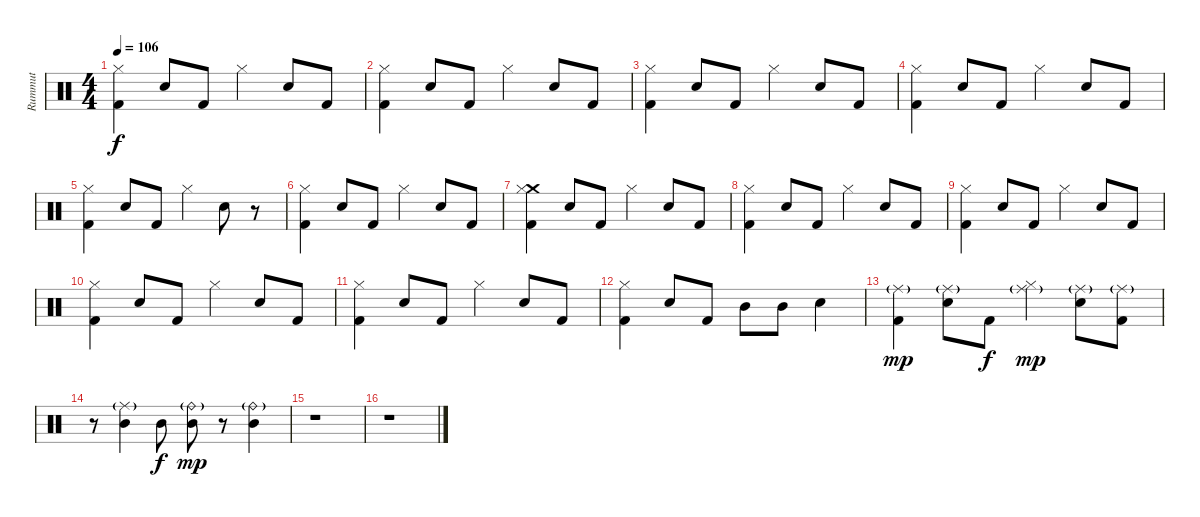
\track ("Rummut" "Rummut") {instrument percussion}
\staff {score}
\articulation defaults
\ts (4 4)
\tempo 106
\clef neutral
\ks c
("Hi-Hat (closed)" "Kick (hit) 2").4{dy f} "Electric Snare (hit)".8 "Kick (hit) 2".8 "Hi-Hat (closed)".4 "Electric Snare (hit)".8 "Kick (hit) 2".8 |
("Hi-Hat (closed)" "Kick (hit) 2").4 "Electric Snare (hit)".8 "Kick (hit) 2".8 "Hi-Hat (closed)".4 "Electric Snare (hit)".8 "Kick (hit) 2".8 |
("Hi-Hat (closed)" "Kick (hit) 2").4 "Electric Snare (hit)".8 "Kick (hit) 2".8 "Hi-Hat (closed)".4 "Electric Snare (hit)".8 "Kick (hit) 2".8 |
("Hi-Hat (closed)" "Kick (hit) 2").4 "Electric Snare (hit)".8 "Kick (hit) 2".8 "Hi-Hat (closed)".4 "Electric Snare (hit)".8 "Kick (hit) 2".8 |
("Hi-Hat (closed)" "Kick (hit) 2").4 "Electric Snare (hit)".8 "Kick (hit) 2".8 "Hi-Hat (closed)".4 "Electric Snare (hit)".8 r.8 |
("Hi-Hat (closed)" "Kick (hit) 2").4 "Electric Snare (hit)".8 "Kick (hit) 2".8 "Hi-Hat (closed)".4 "Electric Snare (hit)".8 "Kick (hit) 2".8 |
("Crash medium (hit)" "Hi-Hat (closed)" "Kick (hit) 2").4 "Electric Snare (hit)".8 "Kick (hit) 2".8 "Hi-Hat (closed)".4 "Electric Snare (hit)".8 "Kick (hit) 2".8 |
("Hi-Hat (closed)" "Kick (hit) 2").4 "Electric Snare (hit)".8 "Kick (hit) 2".8 "Hi-Hat (closed)".4 "Electric Snare (hit)".8 "Kick (hit) 2".8 |
("Hi-Hat (closed)" "Kick (hit) 2").4 "Electric Snare (hit)".8 "Kick (hit) 2".8 "Hi-Hat (closed)".4 "Electric Snare (hit)".8 "Kick (hit) 2".8 |
("Hi-Hat (closed)" "Kick (hit) 2").4 "Electric Snare (hit)".8 "Kick (hit) 2".8 "Hi-Hat (closed)".4 "Electric Snare (hit)".8 "Kick (hit) 2".8 |
("Hi-Hat (closed)" "Kick (hit) 2").4 "Electric Snare (hit)".8 "Kick (hit) 2".8 "Hi-Hat (closed)".4 "Electric Snare (hit)".8 "Kick (hit) 2".8 |
("Hi-Hat (closed)" "Kick (hit) 2").4 "Electric Snare (hit)".8 "Kick (hit) 2".8 "Mid Tom (hit)".8 "Mid Tom (hit)".8 "Electric Snare (hit)".4 |
("Ride (middle)"{g} "Kick (hit) 2").4{dy mp} ("Ride (middle)"{g} "Electric Snare (hit)").8 "Kick (hit) 2".8{dy f} ("Ride (middle)"{g} "Hi-Hat (closed)").4{dy mp} ("Ride (middle)"{g} "Electric Snare (hit)").8 ("Ride (middle)"{g} "Kick (hit) 2").8 |
r.8 ("Ride (middle)"{g} "Mid Tom (hit)").4 "Mid Tom (hit)".8{dy f} ("Ride (bell)"{g} "Mid Tom (hit)").8{dy mp} r.8 ("Ride (bell)"{g} "Mid Tom (hit)").4 |
r.1 |
r.1
